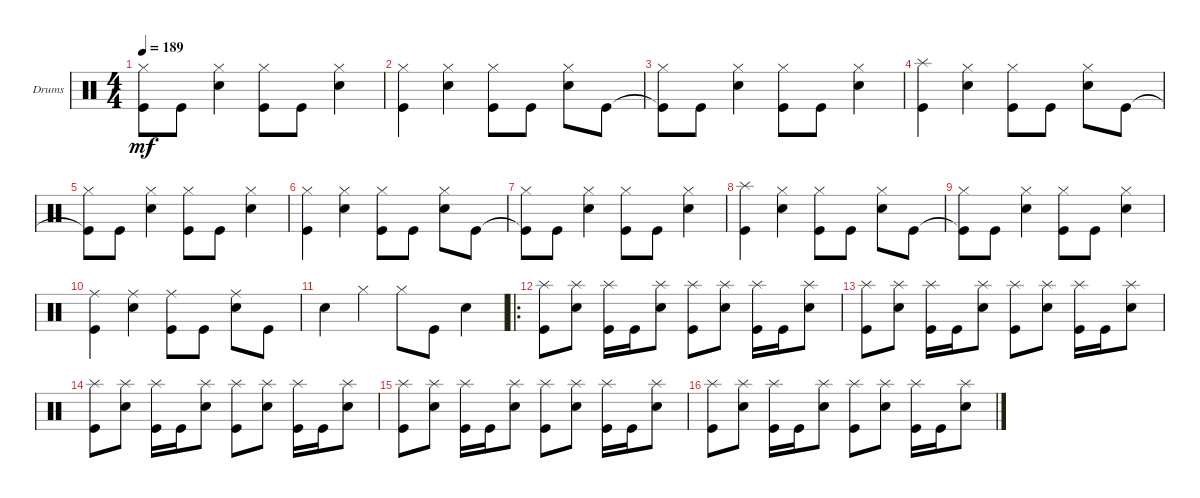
\defaultSystemsLayout 4
\bracketExtendMode groupsimilarinstruments
\firstSystemTrackNameOrientation horizontal
\otherSystemsTrackNameOrientation horizontal
\track ("Drumkit" "Drums") {instrument percussion}
\staff {score}
\articulation defaults
\ts (4 4)
\tempo 189
\clef neutral
\ks c
("Kick (hit)"{t} "Hi-Hat (closed)").8{dy mf} "Kick (hit)".8 ("Snare (hit) 2" "Hi-Hat (closed)").4 ("Kick (hit)" "Hi-Hat (closed)").8 "Kick (hit)".8 ("Snare (hit) 2" "Hi-Hat (closed)").4 |
("Kick (hit)" "Hi-Hat (closed)").4 ("Snare (hit) 2" "Hi-Hat (closed)").4 ("Kick (hit)" "Hi-Hat (closed)").8 "Kick (hit)".8 ("Snare (hit) 2" "Hi-Hat (closed)").8 "Kick (hit)".8 |
("Kick (hit)"{t} "Hi-Hat (closed)").8 "Kick (hit)".8 ("Snare (hit) 2" "Hi-Hat (closed)").4 ("Kick (hit)" "Hi-Hat (closed)").8 "Kick (hit)".8 ("Snare (hit) 2" "Hi-Hat (closed)").4 |
("Kick (hit)" "Splash (hit)").4 ("Snare (hit) 2" "Hi-Hat (closed)").4 ("Kick (hit)" "Hi-Hat (closed)").8 "Kick (hit)".8 ("Snare (hit) 2" "Hi-Hat (closed)").8 "Kick (hit)".8 |
("Kick (hit)"{t} "Hi-Hat (closed)").8 "Kick (hit)".8 ("Snare (hit) 2" "Hi-Hat (closed)").4 ("Kick (hit)" "Hi-Hat (closed)").8 "Kick (hit)".8 ("Snare (hit) 2" "Hi-Hat (closed)").4 |
("Kick (hit)" "Hi-Hat (closed)").4 ("Snare (hit) 2" "Hi-Hat (closed)").4 ("Kick (hit)" "Hi-Hat (closed)").8 "Kick (hit)".8 ("Snare (hit) 2" "Hi-Hat (closed)").8 "Kick (hit)".8 |
("Kick (hit)"{t} "Hi-Hat (closed)").8 "Kick (hit)".8 ("Snare (hit) 2" "Hi-Hat (closed)").4 ("Kick (hit)" "Hi-Hat (closed)").8 "Kick (hit)".8 ("Snare (hit) 2" "Hi-Hat (closed)").4 |
("Kick (hit)" "Splash (hit)").4 ("Snare (hit) 2" "Hi-Hat (closed)").4 ("Kick (hit)" "Hi-Hat (closed)").8 "Kick (hit)".8 ("Snare (hit) 2" "Hi-Hat (closed)").8 "Kick (hit)".8 |
("Kick (hit)"{t} "Hi-Hat (closed)").8 "Kick (hit)".8 ("Snare (hit) 2" "Hi-Hat (closed)").4 ("Kick (hit)" "Hi-Hat (closed)").8 "Kick (hit)".8 ("Snare (hit) 2" "Hi-Hat (closed)").4 |
("Kick (hit)" "Ride (middle)").4 ("Snare (hit) 2" "Ride (middle)").4 ("Kick (hit)" "Ride (middle)").8 "Kick (hit)".8 ("Snare (hit) 2" "Ride (middle)").8 "Kick (hit)".8 |
"Snare (hit) 2".4 "Hi-Hat (closed)".4 "Hi-Hat (closed)".8 "Kick (hit)".8 "Snare (hit) 2".4 |
\ro
("Kick (hit)" "Splash (hit)").8 ("Snare (hit) 2" "Splash (hit)").8 ("Kick (hit)" "Splash (hit)").16 "Kick (hit)".16 ("Snare (hit) 2" "Splash (hit)").8 ("Kick (hit)" "Splash (hit)").8 ("Snare (hit) 2" "Splash (hit)").8 ("Kick (hit)" "Splash (hit)").16 "Kick (hit)".16 ("Snare (hit) 2" "Splash (hit)").8 |
("Kick (hit)" "Splash (hit)").8 ("Snare (hit) 2" "Splash (hit)").8 ("Kick (hit)" "Splash (hit)").16 "Kick (hit)".16 ("Snare (hit) 2" "Splash (hit)").8 ("Kick (hit)" "Splash (hit)").8 ("Snare (hit) 2" "Splash (hit)").8 ("Kick (hit)" "Splash (hit)").16 "Kick (hit)".16 ("Snare (hit) 2" "Splash (hit)").8 |
("Kick (hit)" "Splash (hit)").8 ("Snare (hit) 2" "Splash (hit)").8 ("Kick (hit)" "Splash (hit)").16 "Kick (hit)".16 ("Snare (hit) 2" "Splash (hit)").8 ("Kick (hit)" "Splash (hit)").8 ("Snare (hit) 2" "Splash (hit)").8 ("Kick (hit)" "Splash (hit)").16 "Kick (hit)".16 ("Snare (hit) 2" "Splash (hit)").8 |
("Kick (hit)" "Splash (hit)").8 ("Snare (hit) 2" "Splash (hit)").8 ("Kick (hit)" "Splash (hit)").16 "Kick (hit)".16 ("Snare (hit) 2" "Splash (hit)").8 ("Kick (hit)" "Splash (hit)").8 ("Snare (hit) 2" "Splash (hit)").8 ("Kick (hit)" "Splash (hit)").16 "Kick (hit)".16 ("Snare (hit) 2" "Splash (hit)").8 |
("Kick (hit)" "Splash (hit)").8 ("Snare (hit) 2" "Splash (hit)").8 ("Kick (hit)" "Splash (hit)").16 "Kick (hit)".16 ("Snare (hit) 2" "Splash (hit)").8 ("Kick (hit)" "Splash (hit)").8 ("Snare (hit) 2" "Splash (hit)").8 ("Kick (hit)" "Splash (hit)").16 "Kick (hit)".16 ("Snare (hit) 2" "Splash (hit)").8
